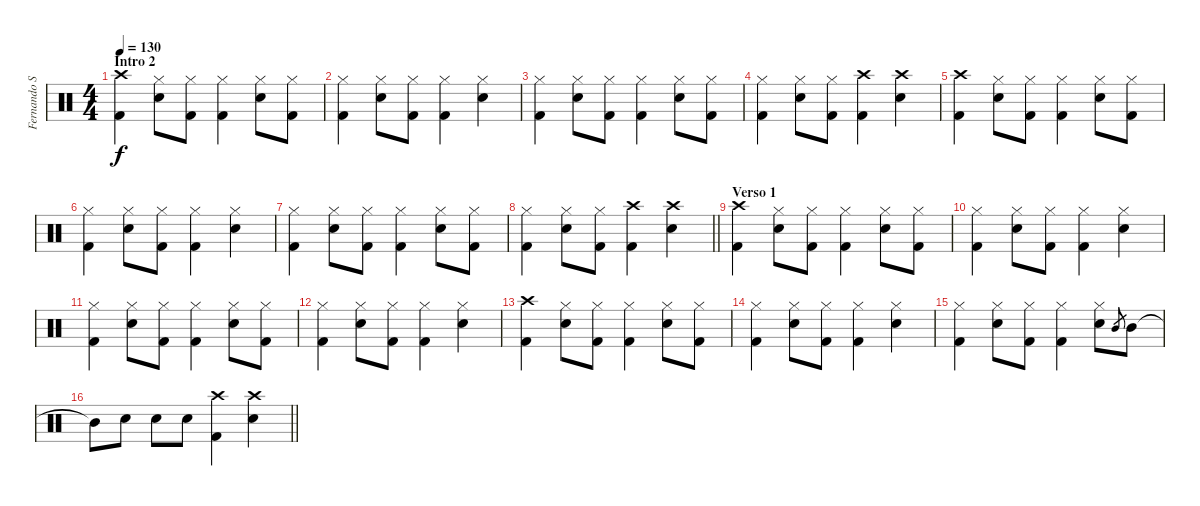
\track ("Fernando Scarcella" "Fernando S") {instrument percussion}
\staff {score}
\articulation defaults
\ts (4 4)
\section ("" "Intro 2")
\tempo 130
\clef neutral
\ks c
("Crash high (hit)" "Kick (hit) 2").4{dy f} ("Hi-Hat (closed)" "Snare (hit) 2").8 ("Hi-Hat (closed)" "Kick (hit) 2").8 ("Hi-Hat (closed)" "Kick (hit) 2").4 ("Hi-Hat (closed)" "Snare (hit) 2").8 ("Hi-Hat (closed)" "Kick (hit) 2").8 |
("Hi-Hat (closed)" "Kick (hit) 2").4 ("Hi-Hat (closed)" "Snare (hit) 2").8 ("Hi-Hat (closed)" "Kick (hit) 2").8 ("Hi-Hat (closed)" "Kick (hit) 2").4 ("Hi-Hat (closed)" "Snare (hit) 2").4 |
("Hi-Hat (closed)" "Kick (hit) 2").4 ("Hi-Hat (closed)" "Snare (hit) 2").8 ("Hi-Hat (closed)" "Kick (hit) 2").8 ("Hi-Hat (closed)" "Kick (hit) 2").4 ("Hi-Hat (closed)" "Snare (hit) 2").8 ("Hi-Hat (closed)" "Kick (hit) 2").8 |
("Hi-Hat (closed)" "Kick (hit) 2").4 ("Hi-Hat (closed)" "Snare (hit) 2").8 ("Hi-Hat (closed)" "Kick (hit) 2").8 ("Crash high (hit)" "Kick (hit) 2").4 ("Crash high (hit)" "Snare (hit) 2").4 |
("Crash high (hit)" "Kick (hit) 2").4 ("Hi-Hat (closed)" "Snare (hit) 2").8 ("Hi-Hat (closed)" "Kick (hit) 2").8 ("Hi-Hat (closed)" "Kick (hit) 2").4 ("Hi-Hat (closed)" "Snare (hit) 2").8 ("Hi-Hat (closed)" "Kick (hit) 2").8 |
("Hi-Hat (closed)" "Kick (hit) 2").4 ("Hi-Hat (closed)" "Snare (hit) 2").8 ("Hi-Hat (closed)" "Kick (hit) 2").8 ("Hi-Hat (closed)" "Kick (hit) 2").4 ("Hi-Hat (closed)" "Snare (hit) 2").4 |
("Hi-Hat (closed)" "Kick (hit) 2").4 ("Hi-Hat (closed)" "Snare (hit) 2").8 ("Hi-Hat (closed)" "Kick (hit) 2").8 ("Hi-Hat (closed)" "Kick (hit) 2").4 ("Hi-Hat (closed)" "Snare (hit) 2").8 ("Hi-Hat (closed)" "Kick (hit) 2").8 |
\barLineRight lightlight
("Hi-Hat (closed)" "Kick (hit) 2").4 ("Hi-Hat (closed)" "Snare (hit) 2").8 ("Hi-Hat (closed)" "Kick (hit) 2").8 ("Crash high (hit)" "Kick (hit) 2").4 ("Crash high (hit)" "Snare (hit) 2").4 |
\section ("" "Verso 1")
("Crash high (hit)" "Kick (hit) 2").4 ("Hi-Hat (closed)" "Snare (hit) 2").8 ("Hi-Hat (closed)" "Kick (hit) 2").8 ("Hi-Hat (closed)" "Kick (hit) 2").4 ("Hi-Hat (closed)" "Snare (hit) 2").8 ("Hi-Hat (closed)" "Kick (hit) 2").8 |
("Hi-Hat (closed)" "Kick (hit) 2").4 ("Hi-Hat (closed)" "Snare (hit) 2").8 ("Hi-Hat (closed)" "Kick (hit) 2").8 ("Hi-Hat (closed)" "Kick (hit) 2").4 ("Hi-Hat (closed)" "Snare (hit) 2").4 |
("Hi-Hat (closed)" "Kick (hit) 2").4 ("Hi-Hat (closed)" "Snare (hit) 2").8 ("Hi-Hat (closed)" "Kick (hit) 2").8 ("Hi-Hat (closed)" "Kick (hit) 2").4 ("Hi-Hat (closed)" "Snare (hit) 2").8 ("Hi-Hat (closed)" "Kick (hit) 2").8 |
("Hi-Hat (closed)" "Kick (hit) 2").4 ("Hi-Hat (closed)" "Snare (hit) 2").8 ("Hi-Hat (closed)" "Kick (hit) 2").8 ("Hi-Hat (closed)" "Kick (hit) 2").4 ("Hi-Hat (closed)" "Snare (hit) 2").4 |
("Crash high (hit)" "Kick (hit) 2").4 ("Hi-Hat (closed)" "Snare (hit) 2").8 ("Hi-Hat (closed)" "Kick (hit) 2").8 ("Hi-Hat (closed)" "Kick (hit) 2").4 ("Hi-Hat (closed)" "Snare (hit) 2").8 ("Hi-Hat (closed)" "Kick (hit) 2").8 |
("Hi-Hat (closed)" "Kick (hit) 2").4 ("Hi-Hat (closed)" "Snare (hit) 2").8 ("Hi-Hat (closed)" "Kick (hit) 2").8 ("Hi-Hat (closed)" "Kick (hit) 2").4 ("Hi-Hat (closed)" "Snare (hit) 2").4 |
("Hi-Hat (closed)" "Kick (hit) 2").4 ("Hi-Hat (closed)" "Snare (hit) 2").8 ("Hi-Hat (closed)" "Kick (hit) 2").8 ("Hi-Hat (closed)" "Kick (hit) 2").4 ("Hi-Hat (closed)" "Snare (hit) 2").8 "Mid Tom (hit)".8{gr} "Mid Tom (hit)".8 |
\barLineRight lightlight "Mid Tom (hit)"{t}.8 "Snare (hit) 2".8 "Snare (hit) 2".8 "Snare (hit) 2".8
("Crash high (hit)" "Kick (hit) 2").4 ("Crash high (hit)" "Snare (hit) 2").4
